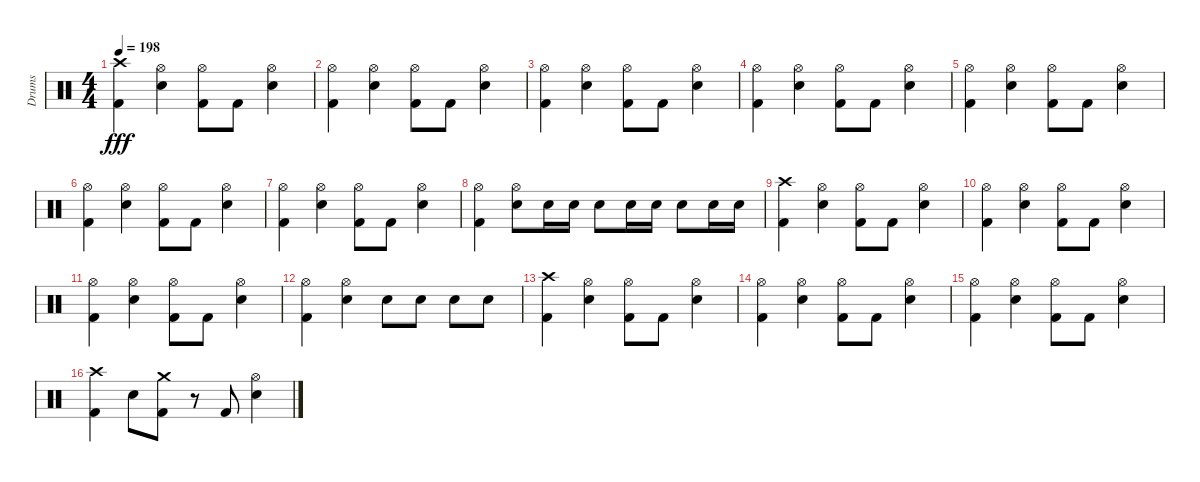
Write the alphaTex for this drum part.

\track ("Drums" "Drums") {instrument percussion}
\staff {score}
\articulation defaults
\ts (4 4)
\tempo 198
\clef neutral
\ks c
("Crash high (hit)" "Kick (hit) 2").4{dy fff} ("Hi-Hat (open)" "Electric Snare (hit)").4 ("Hi-Hat (open)" "Kick (hit) 2").8 "Kick (hit) 2".8 ("Hi-Hat (open)" "Electric Snare (hit)").4 |
("Hi-Hat (open)" "Kick (hit) 2").4 ("Hi-Hat (open)" "Electric Snare (hit)").4 ("Hi-Hat (open)" "Kick (hit) 2").8 "Kick (hit) 2".8 ("Hi-Hat (open)" "Electric Snare (hit)").4 |
("Hi-Hat (open)" "Kick (hit) 2").4 ("Hi-Hat (open)" "Electric Snare (hit)").4 ("Hi-Hat (open)" "Kick (hit) 2").8 "Kick (hit) 2".8 ("Hi-Hat (open)" "Electric Snare (hit)").4 |
("Hi-Hat (open)" "Kick (hit) 2").4 ("Hi-Hat (open)" "Electric Snare (hit)").4 ("Hi-Hat (open)" "Kick (hit) 2").8 "Kick (hit) 2".8 ("Hi-Hat (open)" "Electric Snare (hit)").4 |
("Hi-Hat (open)" "Kick (hit) 2").4 ("Hi-Hat (open)" "Electric Snare (hit)").4 ("Hi-Hat (open)" "Kick (hit) 2").8 "Kick (hit) 2".8 ("Hi-Hat (open)" "Electric Snare (hit)").4 |
("Hi-Hat (open)" "Kick (hit) 2").4 ("Hi-Hat (open)" "Electric Snare (hit)").4 ("Hi-Hat (open)" "Kick (hit) 2").8 "Kick (hit) 2".8 ("Hi-Hat (open)" "Electric Snare (hit)").4 |
("Hi-Hat (open)" "Kick (hit) 2").4 ("Hi-Hat (open)" "Electric Snare (hit)").4 ("Hi-Hat (open)" "Kick (hit) 2").8 "Kick (hit) 2".8 ("Hi-Hat (open)" "Electric Snare (hit)").4 |
("Hi-Hat (open)" "Kick (hit) 2").4 ("Hi-Hat (open)" "Electric Snare (hit)").8 "Electric Snare (hit)".16 "Electric Snare (hit)".16 "Electric Snare (hit)".8 "Electric Snare (hit)".16 "Electric Snare (hit)".16 "Electric Snare (hit)".8 "Electric Snare (hit)".16 "Electric Snare (hit)".16 |
("Crash high (hit)" "Kick (hit) 2").4 ("Hi-Hat (open)" "Electric Snare (hit)").4 ("Hi-Hat (open)" "Kick (hit) 2").8 "Kick (hit) 2".8 ("Hi-Hat (open)" "Electric Snare (hit)").4 |
("Hi-Hat (open)" "Kick (hit) 2").4 ("Hi-Hat (open)" "Electric Snare (hit)").4 ("Hi-Hat (open)" "Kick (hit) 2").8 "Kick (hit) 2".8 ("Hi-Hat (open)" "Electric Snare (hit)").4 |
("Hi-Hat (open)" "Kick (hit) 2").4 ("Hi-Hat (open)" "Electric Snare (hit)").4 ("Hi-Hat (open)" "Kick (hit) 2").8 "Kick (hit) 2".8 ("Hi-Hat (open)" "Electric Snare (hit)").4 |
("Hi-Hat (open)" "Kick (hit) 2").4 ("Hi-Hat (open)" "Electric Snare (hit)").4 "Electric Snare (hit)".8 "Electric Snare (hit)".8 "Electric Snare (hit)".8 "Electric Snare (hit)".8 |
("Crash high (hit)" "Kick (hit) 2").4 ("Hi-Hat (open)" "Electric Snare (hit)").4 ("Hi-Hat (open)" "Kick (hit) 2").8 "Kick (hit) 2".8 ("Hi-Hat (open)" "Electric Snare (hit)").4 |
("Hi-Hat (open)" "Kick (hit) 2").4 ("Hi-Hat (open)" "Electric Snare (hit)").4 ("Hi-Hat (open)" "Kick (hit) 2").8 "Kick (hit) 2".8 ("Hi-Hat (open)" "Electric Snare (hit)").4 |
("Hi-Hat (open)" "Kick (hit) 2").4 ("Hi-Hat (open)" "Electric Snare (hit)").4 ("Hi-Hat (open)" "Kick (hit) 2").8 "Kick (hit) 2".8 ("Hi-Hat (open)" "Electric Snare (hit)").4 |
("Crash high (hit)" "Kick (hit) 2").4 "Electric Snare (hit)".8 ("Crash medium (hit)" "Kick (hit) 2").8 r.8 "Kick (hit) 2".8 ("Hi-Hat (open)" "Electric Snare (hit)").4
